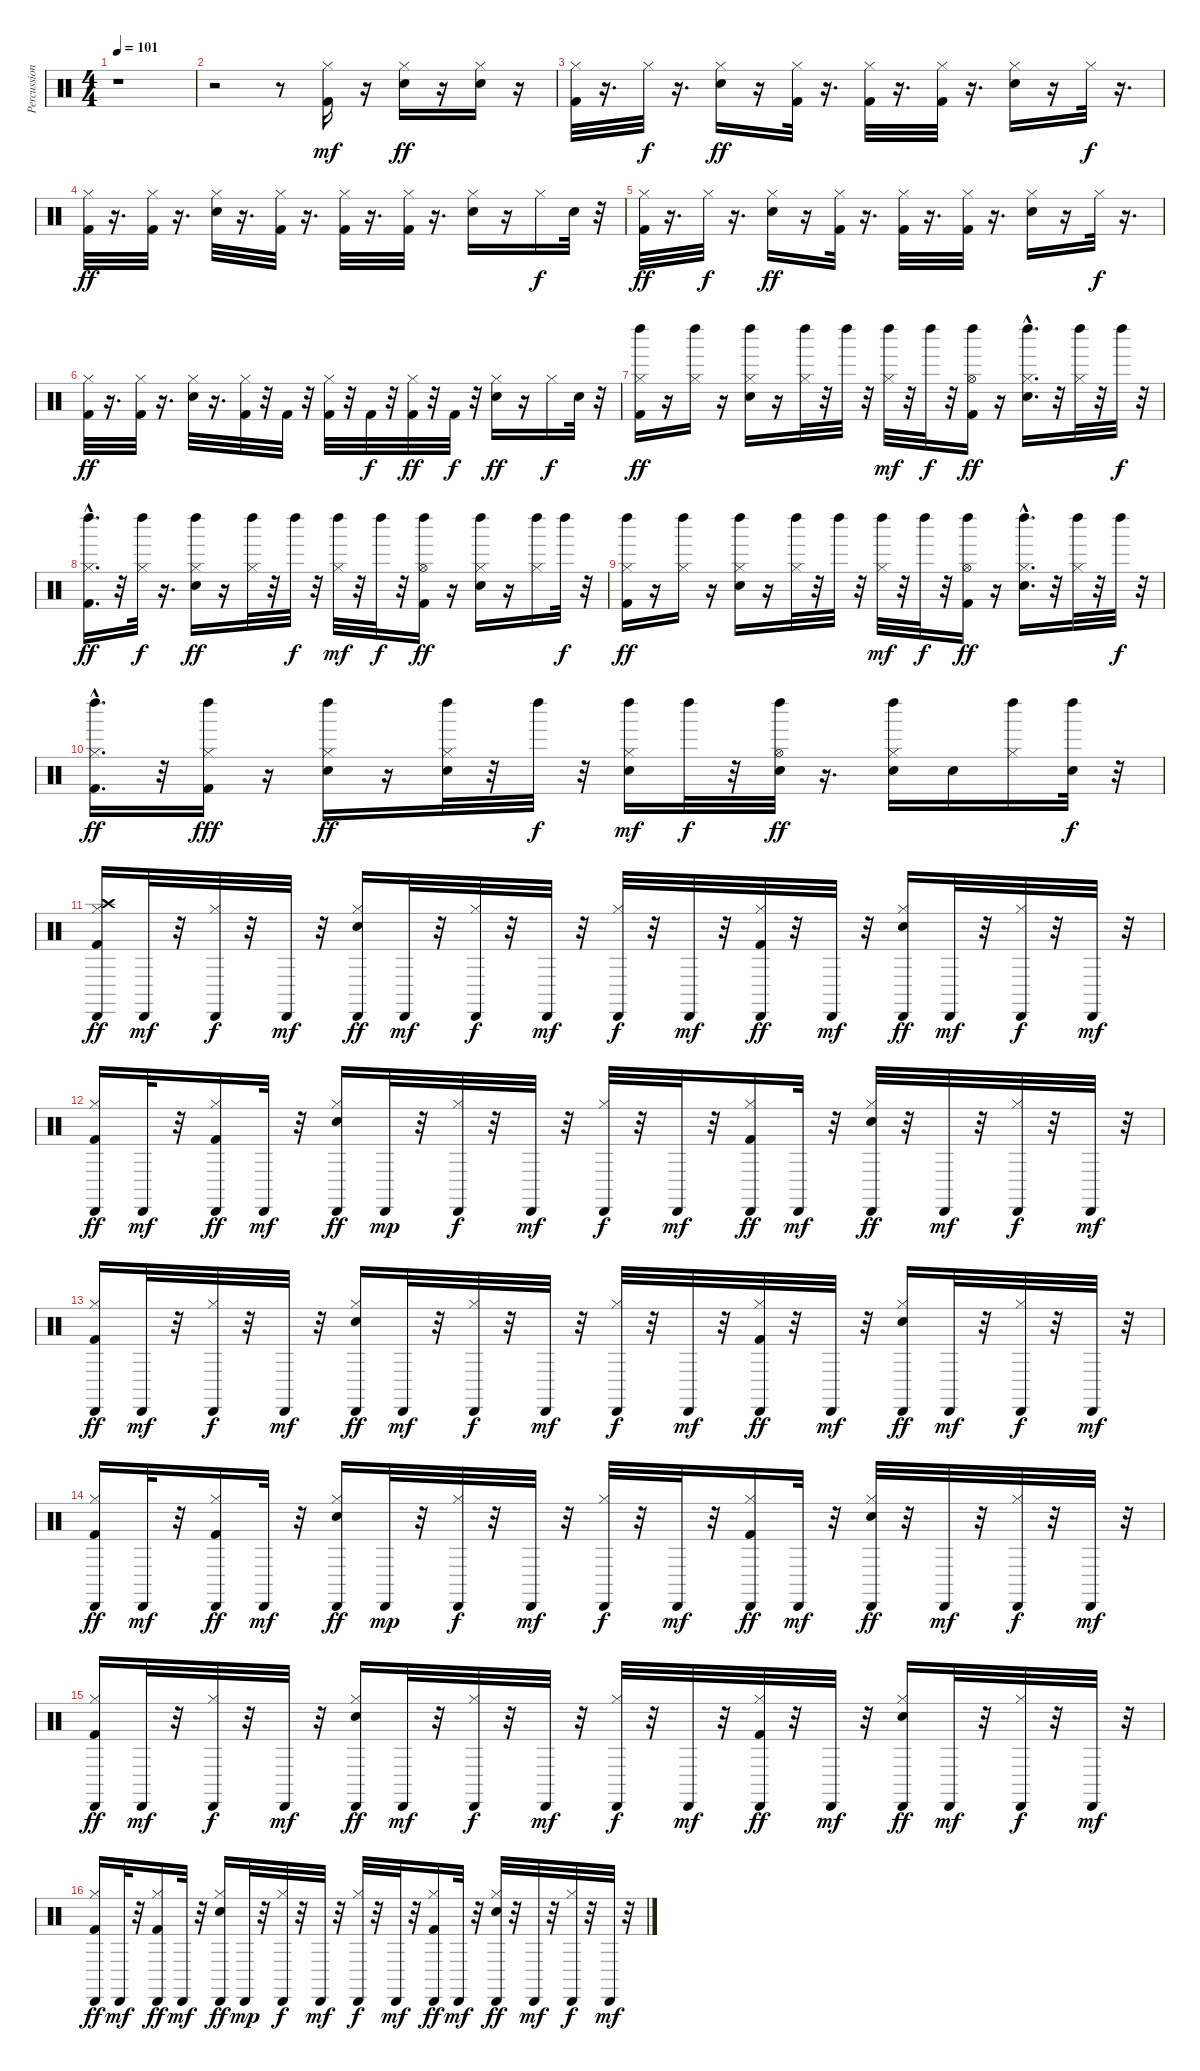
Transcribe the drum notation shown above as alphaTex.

\track ("Percussion" "Percussion") {instrument percussion}
\staff {score}
\articulation defaults
\ts (4 4)
\tempo 101
\clef neutral
\ks c
r.1{dy ff} |
r.2 r.8 ("Kick (hit) 2" "Hi-Hat (closed)").16{dy mf} r.16 ("Snare (hit) 2" "Hi-Hat (closed)").16{dy ff} r.16 ("Snare (hit) 2" "Hi-Hat (closed)").16 r.16 |
("Kick (hit) 2" "Hi-Hat (closed)").32 r.16{d} "Hi-Hat (closed)".32{dy f} r.16{d} ("Snare (hit) 2" "Hi-Hat (closed)").16{dy ff} r.16 ("Kick (hit) 2" "Hi-Hat (closed)").32 r.16{d} ("Kick (hit) 2" "Hi-Hat (closed)").32 r.16{d} ("Kick (hit) 2" "Hi-Hat (closed)").32 r.16{d} ("Snare (hit) 2" "Hi-Hat (closed)").16 r.16 "Hi-Hat (closed)".32{dy f} r.16{d} |
("Kick (hit) 2" "Hi-Hat (closed)").32{dy ff} r.16{d} ("Kick (hit) 2" "Hi-Hat (closed)").32 r.16{d} ("Snare (hit) 2" "Hi-Hat (closed)").32 r.16{d} ("Kick (hit) 2" "Hi-Hat (closed)").32 r.16{d} ("Kick (hit) 2" "Hi-Hat (closed)").32 r.16{d} ("Kick (hit) 2" "Hi-Hat (closed)").32 r.16{d} ("Snare (hit) 2" "Hi-Hat (closed)").16 r.16 "Hi-Hat (closed)".16{dy f} "Snare (hit) 2".32 r.32 |
("Kick (hit) 2" "Hi-Hat (closed)").32{dy ff} r.16{d} "Hi-Hat (closed)".32{dy f} r.16{d} ("Snare (hit) 2" "Hi-Hat (closed)").16{dy ff} r.16 ("Kick (hit) 2" "Hi-Hat (closed)").32 r.16{d} ("Kick (hit) 2" "Hi-Hat (closed)").32 r.16{d} ("Kick (hit) 2" "Hi-Hat (closed)").32 r.16{d} ("Snare (hit) 2" "Hi-Hat (closed)").16 r.16 "Hi-Hat (closed)".32{dy f} r.16{d} |
("Kick (hit) 2" "Hi-Hat (closed)").32{dy ff} r.16{d} ("Kick (hit) 2" "Hi-Hat (closed)").32 r.16{d} ("Snare (hit) 2" "Hi-Hat (closed)").32 r.16{d} ("Kick (hit) 2" "Hi-Hat (closed)").32 r.32 "Kick (hit) 2".32 r.32 ("Kick (hit) 2" "Hi-Hat (closed)").32 r.32 "Kick (hit) 2".32{dy f} r.32 ("Kick (hit) 2" "Hi-Hat (closed)").32{dy ff} r.32 "Kick (hit) 2".32{dy f} r.32 ("Snare (hit) 2" "Hi-Hat (closed)").16{dy ff} r.16 "Hi-Hat (closed)".16{dy f} "Snare (hit) 2".32 r.32 |
("Kick (hit) 2" "Hi-Hat (closed)" "Left Maraca (hit)").16{dy ff} r.16 ("Hi-Hat (closed)" "Left Maraca (hit)").16 r.16 ("Snare (hit) 2" "Hi-Hat (closed)" "Left Maraca (hit)").16 r.16 ("Hi-Hat (closed)" "Left Maraca (hit)").32 r.32 "Left Maraca (hit)".32 r.32 ("Hi-Hat (closed)" "Left Maraca (hit)").32{dy mf} r.32 "Left Maraca (hit)".32{dy f} r.32 ("Kick (hit) 2" "Hi-Hat (open)" "Left Maraca (hit)").16{dy ff} r.16 ("Snare (hit) 2"{hac} "Hi-Hat (closed)" "Left Maraca (hit)").16{d} r.32 ("Hi-Hat (closed)" "Left Maraca (hit)").32 r.32 "Left Maraca (hit)".32{dy f} r.32 |
("Kick (hit) 2"{hac} "Hi-Hat (closed)" "Left Maraca (hit)").16{d dy ff} r.32 ("Hi-Hat (closed)" "Left Maraca (hit)").32{dy f} r.16{d} ("Snare (hit) 2" "Hi-Hat (closed)" "Left Maraca (hit)").16{dy ff} r.16 ("Hi-Hat (closed)" "Left Maraca (hit)").32 r.32 "Left Maraca (hit)".32{dy f} r.32 ("Hi-Hat (closed)" "Left Maraca (hit)").32{dy mf} r.32 "Left Maraca (hit)".32{dy f} r.32 ("Kick (hit) 2" "Hi-Hat (open)" "Left Maraca (hit)").16{dy ff} r.16 ("Snare (hit) 2" "Hi-Hat (closed)" "Left Maraca (hit)").16 r.16 ("Hi-Hat (closed)" "Left Maraca (hit)").16 "Left Maraca (hit)".32{dy f} r.32 |
("Kick (hit) 2" "Hi-Hat (closed)" "Left Maraca (hit)").16{dy ff} r.16 ("Hi-Hat (closed)" "Left Maraca (hit)").16 r.16 ("Snare (hit) 2" "Hi-Hat (closed)" "Left Maraca (hit)").16 r.16 ("Hi-Hat (closed)" "Left Maraca (hit)").32 r.32 "Left Maraca (hit)".32 r.32 ("Hi-Hat (closed)" "Left Maraca (hit)").32{dy mf} r.32 "Left Maraca (hit)".32{dy f} r.32 ("Kick (hit) 2" "Hi-Hat (open)" "Left Maraca (hit)").16{dy ff} r.16 ("Snare (hit) 2"{hac} "Hi-Hat (closed)" "Left Maraca (hit)").16{d} r.32 ("Hi-Hat (closed)" "Left Maraca (hit)").32 r.32 "Left Maraca (hit)".32{dy f} r.32 |
("Kick (hit) 2"{hac} "Hi-Hat (closed)" "Left Maraca (hit)").16{d dy ff} r.32 ("Kick (hit) 2" "Hi-Hat (closed)" "Left Maraca (hit)").16{dy fff} r.16 ("Snare (hit) 2" "Hi-Hat (closed)" "Left Maraca (hit)").16{dy ff} r.16 ("Snare (hit) 2" "Hi-Hat (closed)" "Left Maraca (hit)").32 r.32 "Left Maraca (hit)".32{dy f} r.32 ("Snare (hit) 2" "Hi-Hat (closed)" "Left Maraca (hit)").16{dy mf} "Left Maraca (hit)".32{dy f} r.32 ("Snare (hit) 2" "Hi-Hat (open)" "Left Maraca (hit)").32{dy ff} r.16{d} ("Snare (hit) 2" "Hi-Hat (closed)" "Left Maraca (hit)").16 "Snare (hit) 2".16 ("Hi-Hat (closed)" "Left Maraca (hit)").16 ("Snare (hit) 2" "Left Maraca (hit)").32{dy f} r.32 |
("Kick (hit) 2" "Hi-Hat (closed)" "Crash high (hit)" "Cabasa (hit)").16{dy ff} "Cabasa (hit)".32{dy mf} r.32 ("Hi-Hat (closed)" "Cabasa (hit)").32{dy f} r.32 "Cabasa (hit)".32{dy mf} r.32 ("Snare (hit) 2" "Hi-Hat (closed)" "Cabasa (hit)").16{dy ff} "Cabasa (hit)".32{dy mf} r.32 ("Hi-Hat (closed)" "Cabasa (hit)").32{dy f} r.32 "Cabasa (hit)".32{dy mf} r.32 ("Hi-Hat (closed)" "Cabasa (hit)").32{dy f} r.32 "Cabasa (hit)".32{dy mf} r.32 ("Kick (hit) 2" "Hi-Hat (closed)" "Cabasa (hit)").32{dy ff} r.32 "Cabasa (hit)".32{dy mf} r.32 ("Snare (hit) 2" "Hi-Hat (closed)" "Cabasa (hit)").16{dy ff} "Cabasa (hit)".32{dy mf} r.32 ("Hi-Hat (closed)" "Cabasa (hit)").32{dy f} r.32 "Cabasa (hit)".32{dy mf} r.32 |
("Kick (hit) 2" "Hi-Hat (closed)" "Cabasa (hit)").16{dy ff} "Cabasa (hit)".32{dy mf} r.32 ("Kick (hit) 2" "Hi-Hat (closed)" "Cabasa (hit)").16{dy ff} "Cabasa (hit)".32{dy mf} r.32 ("Snare (hit) 2" "Hi-Hat (closed)" "Cabasa (hit)").16{dy ff} "Cabasa (hit)".32{dy mp} r.32 ("Hi-Hat (closed)" "Cabasa (hit)").32{dy f} r.32 "Cabasa (hit)".32{dy mf} r.32 ("Hi-Hat (closed)" "Cabasa (hit)").32{dy f} r.32 "Cabasa (hit)".32{dy mf} r.32 ("Kick (hit) 2" "Hi-Hat (closed)" "Cabasa (hit)").16{dy ff} "Cabasa (hit)".32{dy mf} r.32 ("Snare (hit) 2" "Hi-Hat (closed)" "Cabasa (hit)").32{dy ff} r.32 "Cabasa (hit)".32{dy mf} r.32 ("Hi-Hat (closed)" "Cabasa (hit)").32{dy f} r.32 "Cabasa (hit)".32{dy mf} r.32 |
("Kick (hit) 2" "Hi-Hat (closed)" "Cabasa (hit)").16{dy ff} "Cabasa (hit)".32{dy mf} r.32 ("Hi-Hat (closed)" "Cabasa (hit)").32{dy f} r.32 "Cabasa (hit)".32{dy mf} r.32 ("Snare (hit) 2" "Hi-Hat (closed)" "Cabasa (hit)").16{dy ff} "Cabasa (hit)".32{dy mf} r.32 ("Hi-Hat (closed)" "Cabasa (hit)").32{dy f} r.32 "Cabasa (hit)".32{dy mf} r.32 ("Hi-Hat (closed)" "Cabasa (hit)").32{dy f} r.32 "Cabasa (hit)".32{dy mf} r.32 ("Kick (hit) 2" "Hi-Hat (closed)" "Cabasa (hit)").32{dy ff} r.32 "Cabasa (hit)".32{dy mf} r.32 ("Snare (hit) 2" "Hi-Hat (closed)" "Cabasa (hit)").16{dy ff} "Cabasa (hit)".32{dy mf} r.32 ("Hi-Hat (closed)" "Cabasa (hit)").32{dy f} r.32 "Cabasa (hit)".32{dy mf} r.32 |
("Kick (hit) 2" "Hi-Hat (closed)" "Cabasa (hit)").16{dy ff} "Cabasa (hit)".32{dy mf} r.32 ("Kick (hit) 2" "Hi-Hat (closed)" "Cabasa (hit)").16{dy ff} "Cabasa (hit)".32{dy mf} r.32 ("Snare (hit) 2" "Hi-Hat (closed)" "Cabasa (hit)").16{dy ff} "Cabasa (hit)".32{dy mp} r.32 ("Hi-Hat (closed)" "Cabasa (hit)").32{dy f} r.32 "Cabasa (hit)".32{dy mf} r.32 ("Hi-Hat (closed)" "Cabasa (hit)").32{dy f} r.32 "Cabasa (hit)".32{dy mf} r.32 ("Kick (hit) 2" "Hi-Hat (closed)" "Cabasa (hit)").16{dy ff} "Cabasa (hit)".32{dy mf} r.32 ("Snare (hit) 2" "Hi-Hat (closed)" "Cabasa (hit)").32{dy ff} r.32 "Cabasa (hit)".32{dy mf} r.32 ("Hi-Hat (closed)" "Cabasa (hit)").32{dy f} r.32 "Cabasa (hit)".32{dy mf} r.32 |
("Kick (hit) 2" "Hi-Hat (closed)" "Cabasa (hit)").16{dy ff} "Cabasa (hit)".32{dy mf} r.32 ("Hi-Hat (closed)" "Cabasa (hit)").32{dy f} r.32 "Cabasa (hit)".32{dy mf} r.32 ("Snare (hit) 2" "Hi-Hat (closed)" "Cabasa (hit)").16{dy ff} "Cabasa (hit)".32{dy mf} r.32 ("Hi-Hat (closed)" "Cabasa (hit)").32{dy f} r.32 "Cabasa (hit)".32{dy mf} r.32 ("Hi-Hat (closed)" "Cabasa (hit)").32{dy f} r.32 "Cabasa (hit)".32{dy mf} r.32 ("Kick (hit) 2" "Hi-Hat (closed)" "Cabasa (hit)").32{dy ff} r.32 "Cabasa (hit)".32{dy mf} r.32 ("Snare (hit) 2" "Hi-Hat (closed)" "Cabasa (hit)").16{dy ff} "Cabasa (hit)".32{dy mf} r.32 ("Hi-Hat (closed)" "Cabasa (hit)").32{dy f} r.32 "Cabasa (hit)".32{dy mf} r.32 |
("Kick (hit) 2" "Hi-Hat (closed)" "Cabasa (hit)").16{dy ff} "Cabasa (hit)".32{dy mf} r.32 ("Kick (hit) 2" "Hi-Hat (closed)" "Cabasa (hit)").16{dy ff} "Cabasa (hit)".32{dy mf} r.32 ("Snare (hit) 2" "Hi-Hat (closed)" "Cabasa (hit)").16{dy ff} "Cabasa (hit)".32{dy mp} r.32 ("Hi-Hat (closed)" "Cabasa (hit)").32{dy f} r.32 "Cabasa (hit)".32{dy mf} r.32 ("Hi-Hat (closed)" "Cabasa (hit)").32{dy f} r.32 "Cabasa (hit)".32{dy mf} r.32 ("Kick (hit) 2" "Hi-Hat (closed)" "Cabasa (hit)").16{dy ff} "Cabasa (hit)".32{dy mf} r.32 ("Snare (hit) 2" "Hi-Hat (closed)" "Cabasa (hit)").32{dy ff} r.32 "Cabasa (hit)".32{dy mf} r.32 ("Hi-Hat (closed)" "Cabasa (hit)").32{dy f} r.32 "Cabasa (hit)".32{dy mf} r.32
